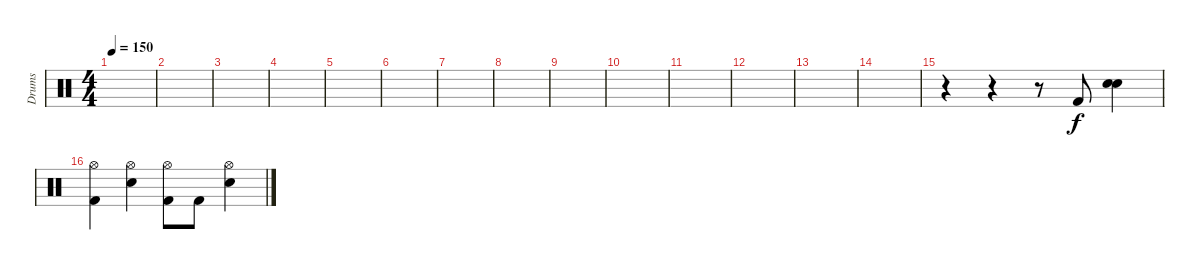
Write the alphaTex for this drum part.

\track ("Drums" "Drums") {instrument percussion}
\staff {score}
\articulation defaults
\ts (4 4)
\tempo 150
\clef neutral
\ks c
|
|
|
|
|
|
|
|
|
|
|
|
|
|
r.4 r.4 r.8 "Kick (hit) 2".8 ("Snare (hit) 2" "Snare (hit) 2").4{bd 120} |
("Hi-Hat (open)" "Kick (hit) 2").4 ("Hi-Hat (open)" "Snare (hit) 2").4 ("Hi-Hat (open)" "Kick (hit) 2").8 "Kick (hit) 2".8 ("Hi-Hat (open)" "Snare (hit) 2").4
